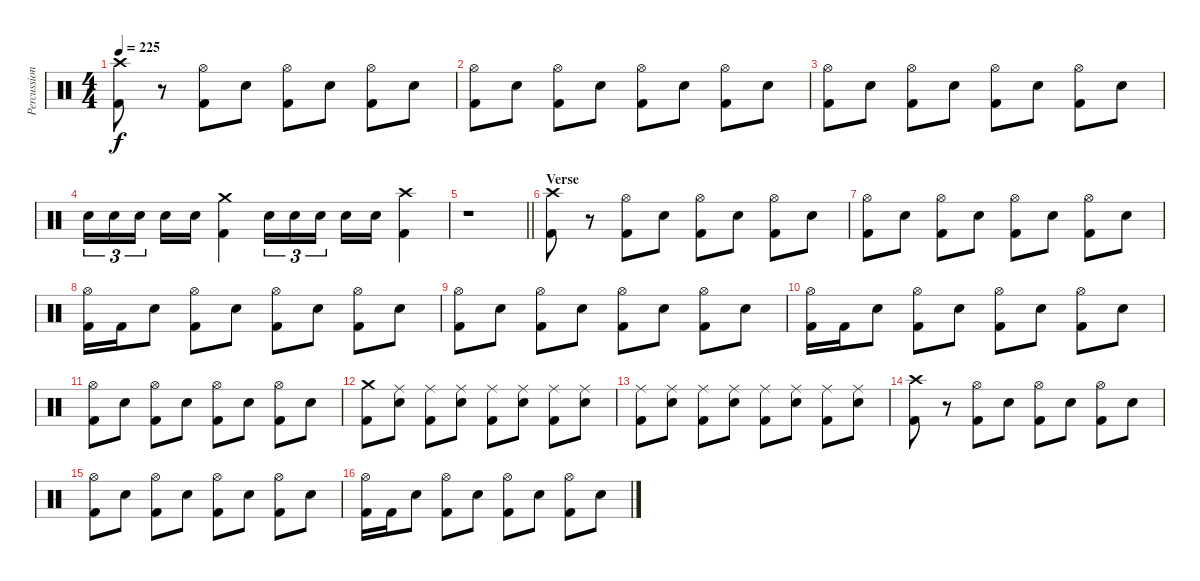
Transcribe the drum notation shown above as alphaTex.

\track ("Percussion" "Percussion") {instrument percussion}
\staff {score}
\articulation defaults
\ts (4 4)
\tempo 225
\clef neutral
\ks c
("Crash high (hit)" "Kick (hit) 2").8{dy f} r.8 ("Hi-Hat (open)" "Kick (hit) 2").8 "Electric Snare (hit)".8 ("Hi-Hat (open)" "Kick (hit) 2").8 "Electric Snare (hit)".8 ("Hi-Hat (open)" "Kick (hit) 2").8 "Electric Snare (hit)".8 |
("Hi-Hat (open)" "Kick (hit) 2").8 "Electric Snare (hit)".8 ("Hi-Hat (open)" "Kick (hit) 2").8 "Electric Snare (hit)".8 ("Hi-Hat (open)" "Kick (hit) 2").8 "Electric Snare (hit)".8 ("Hi-Hat (open)" "Kick (hit) 2").8 "Electric Snare (hit)".8 |
("Hi-Hat (open)" "Kick (hit) 2").8 "Electric Snare (hit)".8 ("Hi-Hat (open)" "Kick (hit) 2").8 "Electric Snare (hit)".8 ("Hi-Hat (open)" "Kick (hit) 2").8 "Electric Snare (hit)".8 ("Hi-Hat (open)" "Kick (hit) 2").8 "Electric Snare (hit)".8 |
"Electric Snare (hit)".16{tu (3 2)} "Electric Snare (hit)".16{tu (3 2)} "Electric Snare (hit)".16{tu (3 2) beam splitsecondary} "Electric Snare (hit)".16 "Electric Snare (hit)".16 ("Crash medium (hit)" "Kick (hit) 2").4 "Electric Snare (hit)".16{tu (3 2)} "Electric Snare (hit)".16{tu (3 2)} "Electric Snare (hit)".16{tu (3 2) beam splitsecondary} "Electric Snare (hit)".16 "Electric Snare (hit)".16 ("Crash high (hit)" "Kick (hit) 2").4 |
\barLineRight lightlight
r.1 |
\section ("" "Verse")
("Crash high (hit)" "Kick (hit) 2").8 r.8 ("Hi-Hat (open)" "Kick (hit) 2").8 "Electric Snare (hit)".8 ("Hi-Hat (open)" "Kick (hit) 2").8 "Electric Snare (hit)".8 ("Hi-Hat (open)" "Kick (hit) 2").8 "Electric Snare (hit)".8 |
("Hi-Hat (open)" "Kick (hit) 2").8 "Electric Snare (hit)".8 ("Hi-Hat (open)" "Kick (hit) 2").8 "Electric Snare (hit)".8 ("Hi-Hat (open)" "Kick (hit) 2").8 "Electric Snare (hit)".8 ("Hi-Hat (open)" "Kick (hit) 2").8 "Electric Snare (hit)".8 |
("Hi-Hat (open)" "Kick (hit) 2").16 "Kick (hit) 2".16 "Electric Snare (hit)".8 ("Hi-Hat (open)" "Kick (hit) 2").8 "Electric Snare (hit)".8 ("Hi-Hat (open)" "Kick (hit) 2").8 "Electric Snare (hit)".8 ("Hi-Hat (open)" "Kick (hit) 2").8 "Electric Snare (hit)".8 |
("Hi-Hat (open)" "Kick (hit) 2").8 "Electric Snare (hit)".8 ("Hi-Hat (open)" "Kick (hit) 2").8 "Electric Snare (hit)".8 ("Hi-Hat (open)" "Kick (hit) 2").8 "Electric Snare (hit)".8 ("Hi-Hat (open)" "Kick (hit) 2").8 "Electric Snare (hit)".8 |
("Hi-Hat (open)" "Kick (hit) 2").16 "Kick (hit) 2".16 "Electric Snare (hit)".8 ("Hi-Hat (open)" "Kick (hit) 2").8 "Electric Snare (hit)".8 ("Hi-Hat (open)" "Kick (hit) 2").8 "Electric Snare (hit)".8 ("Hi-Hat (open)" "Kick (hit) 2").8 "Electric Snare (hit)".8 |
("Hi-Hat (open)" "Kick (hit) 2").8 "Electric Snare (hit)".8 ("Hi-Hat (open)" "Kick (hit) 2").8 "Electric Snare (hit)".8 ("Hi-Hat (open)" "Kick (hit) 2").8 "Electric Snare (hit)".8 ("Hi-Hat (open)" "Kick (hit) 2").8 "Electric Snare (hit)".8 |
("Crash medium (hit)" "Kick (hit) 2").8 ("Ride (middle)" "Electric Snare (hit)").8 ("Ride (middle)" "Kick (hit) 2").8 ("Ride (middle)" "Electric Snare (hit)").8 ("Ride (middle)" "Kick (hit) 2").8 ("Ride (middle)" "Electric Snare (hit)").8 ("Ride (middle)" "Kick (hit) 2").8 ("Ride (middle)" "Electric Snare (hit)").8 |
("Ride (middle)" "Kick (hit) 2").8 ("Ride (middle)" "Electric Snare (hit)").8 ("Ride (middle)" "Kick (hit) 2").8 ("Ride (middle)" "Electric Snare (hit)").8 ("Ride (middle)" "Kick (hit) 2").8 ("Ride (middle)" "Electric Snare (hit)").8 ("Ride (middle)" "Kick (hit) 2").8 ("Ride (middle)" "Electric Snare (hit)").8 |
("Crash high (hit)" "Kick (hit) 2").8 r.8 ("Hi-Hat (open)" "Kick (hit) 2").8 "Electric Snare (hit)".8 ("Hi-Hat (open)" "Kick (hit) 2").8 "Electric Snare (hit)".8 ("Hi-Hat (open)" "Kick (hit) 2").8 "Electric Snare (hit)".8 |
("Hi-Hat (open)" "Kick (hit) 2").8 "Electric Snare (hit)".8 ("Hi-Hat (open)" "Kick (hit) 2").8 "Electric Snare (hit)".8 ("Hi-Hat (open)" "Kick (hit) 2").8 "Electric Snare (hit)".8 ("Hi-Hat (open)" "Kick (hit) 2").8 "Electric Snare (hit)".8 |
("Hi-Hat (open)" "Kick (hit) 2").16 "Kick (hit) 2".16 "Electric Snare (hit)".8 ("Hi-Hat (open)" "Kick (hit) 2").8 "Electric Snare (hit)".8 ("Hi-Hat (open)" "Kick (hit) 2").8 "Electric Snare (hit)".8 ("Hi-Hat (open)" "Kick (hit) 2").8 "Electric Snare (hit)".8
